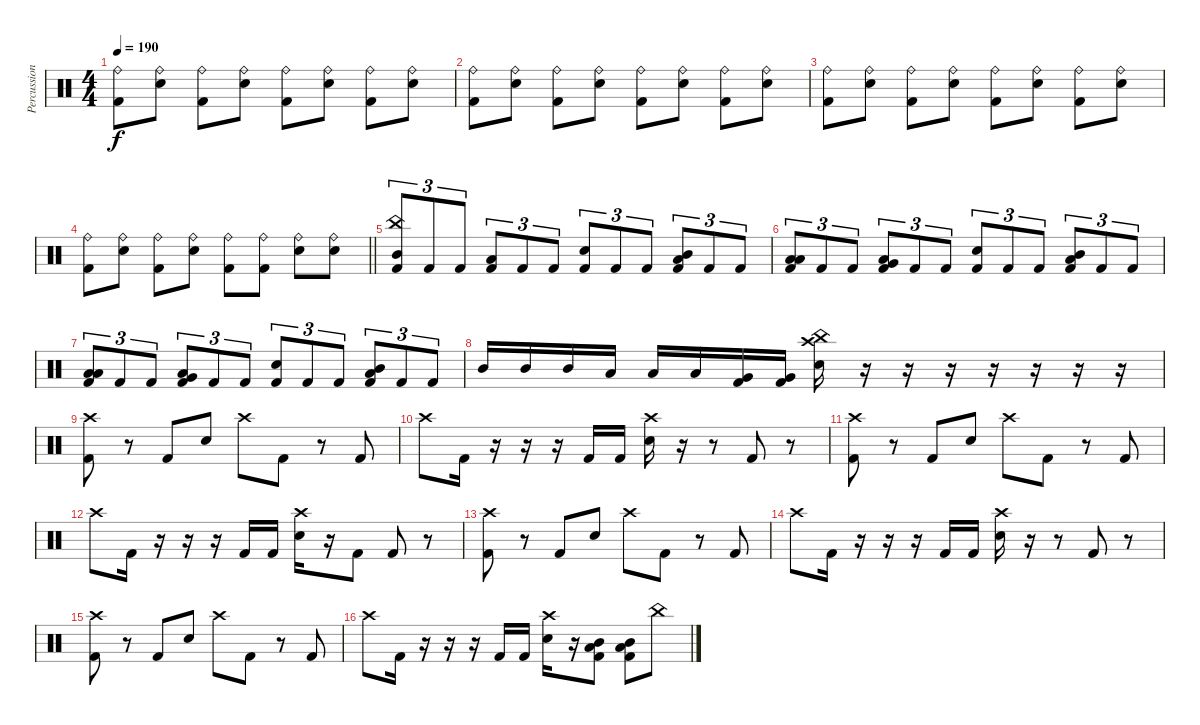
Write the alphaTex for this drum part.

\track ("Percussion" "Percussion") {instrument percussion}
\staff {score}
\articulation defaults
\ts (4 4)
\tempo 190
\clef neutral
\ks c
("Ride (bell)" "Kick (hit) 2").8{dy f} ("Ride (bell)" "Snare (hit) 2").8 ("Ride (bell)" "Kick (hit) 2").8 ("Ride (bell)" "Snare (hit) 2").8 ("Ride (bell)" "Kick (hit) 2").8 ("Ride (bell)" "Snare (hit) 2").8 ("Ride (bell)" "Kick (hit) 2").8 ("Ride (bell)" "Snare (hit) 2").8 |
("Ride (bell)" "Kick (hit) 2").8 ("Ride (bell)" "Snare (hit) 2").8 ("Ride (bell)" "Kick (hit) 2").8 ("Ride (bell)" "Snare (hit) 2").8 ("Ride (bell)" "Kick (hit) 2").8 ("Ride (bell)" "Snare (hit) 2").8 ("Ride (bell)" "Kick (hit) 2").8 ("Ride (bell)" "Snare (hit) 2").8 |
("Ride (bell)" "Kick (hit) 2").8 ("Ride (bell)" "Snare (hit) 2").8 ("Ride (bell)" "Kick (hit) 2").8 ("Ride (bell)" "Snare (hit) 2").8 ("Ride (bell)" "Kick (hit) 2").8 ("Ride (bell)" "Snare (hit) 2").8 ("Ride (bell)" "Kick (hit) 2").8 ("Ride (bell)" "Snare (hit) 2").8 |
\barLineRight lightlight
("Ride (bell)" "Kick (hit) 2").8 ("Ride (bell)" "Snare (hit) 2").8 ("Ride (bell)" "Kick (hit) 2").8 ("Ride (bell)" "Snare (hit) 2").8 ("Ride (bell)" "Kick (hit) 2").8 ("Ride (bell)" "Kick (hit) 2").8 ("Ride (bell)" "Snare (hit) 2").8 ("Ride (bell)" "Snare (hit) 2").8 |
("China (hit)" "Mid Tom (hit)" "Kick (hit) 2").8{tu (3 2)} "Kick (hit) 2".8{tu (3 2)} "Kick (hit) 2".8{tu (3 2)} ("Low Tom (hit)" "Kick (hit) 2").8{tu (3 2)} "Kick (hit) 2".8{tu (3 2)} "Kick (hit) 2".8{tu (3 2)} ("Snare (hit) 2" "Kick (hit) 2").8{tu (3 2)} "Kick (hit) 2".8{tu (3 2)} "Kick (hit) 2".8{tu (3 2)} ("Mid Tom (hit)" "Low Tom (hit)" "Kick (hit) 2").8{tu (3 2)} "Kick (hit) 2".8{tu (3 2)} "Kick (hit) 2".8{tu (3 2)} |
("Low Tom (hit)" "Low Floor Tom (hit)" "Kick (hit) 2").8{tu (3 2)} "Kick (hit) 2".8{tu (3 2)} "Kick (hit) 2".8{tu (3 2)} ("Very Low Tom (hit)" "Low Floor Tom (hit)" "Kick (hit) 2").8{tu (3 2)} "Kick (hit) 2".8{tu (3 2)} "Kick (hit) 2".8{tu (3 2)} ("Snare (hit) 2" "Kick (hit) 2").8{tu (3 2)} "Kick (hit) 2".8{tu (3 2)} "Kick (hit) 2".8{tu (3 2)} ("Mid Tom (hit)" "Low Tom (hit)" "Kick (hit) 2").8{tu (3 2)} "Kick (hit) 2".8{tu (3 2)} "Kick (hit) 2".8{tu (3 2)} |
("Low Tom (hit)" "Low Floor Tom (hit)" "Kick (hit) 2").8{tu (3 2)} "Kick (hit) 2".8{tu (3 2)} "Kick (hit) 2".8{tu (3 2)} ("Very Low Tom (hit)" "Low Floor Tom (hit)" "Kick (hit) 2").8{tu (3 2)} "Kick (hit) 2".8{tu (3 2)} "Kick (hit) 2".8{tu (3 2)} ("Snare (hit) 2" "Kick (hit) 2").8{tu (3 2)} "Kick (hit) 2".8{tu (3 2)} "Kick (hit) 2".8{tu (3 2)} ("Mid Tom (hit)" "Low Tom (hit)" "Kick (hit) 2").8{tu (3 2)} "Kick (hit) 2".8{tu (3 2)} "Kick (hit) 2".8{tu (3 2)} |
"Mid Tom (hit)".16 "Mid Tom (hit)".16 "Mid Tom (hit)".16 "Low Tom (hit)".16 "Low Tom (hit)".16 "Low Tom (hit)".16 ("Very Low Tom (hit)" "Kick (hit) 2").16 ("Very Low Tom (hit)" "Kick (hit) 2").16 ("China (hit)" "Crash high (hit)" "Snare (hit) 2").16 r.16 r.16 r.16 r.16 r.16 r.16 r.16 |
("Crash high (hit)" "Kick (hit) 2").8 r.8 "Kick (hit) 2".8 "Snare (hit) 2".8 "Crash high (hit)".8 "Kick (hit) 2".8 r.8 "Kick (hit) 2".8 |
"Crash high (hit)".8 "Kick (hit) 2".16 r.16 r.16 r.16 "Kick (hit) 2".16 "Kick (hit) 2".16 ("Crash high (hit)" "Snare (hit) 2").16 r.16 r.8 "Kick (hit) 2".8 r.8 |
("Crash high (hit)" "Kick (hit) 2").8 r.8 "Kick (hit) 2".8 "Snare (hit) 2".8 "Crash high (hit)".8 "Kick (hit) 2".8 r.8 "Kick (hit) 2".8 |
"Crash high (hit)".8 "Kick (hit) 2".16 r.16 r.16 r.16 "Kick (hit) 2".16 "Kick (hit) 2".16 ("Crash high (hit)" "Snare (hit) 2").16 r.16 "Kick (hit) 2".8 "Kick (hit) 2".8 r.8 |
("Crash high (hit)" "Kick (hit) 2").8 r.8 "Kick (hit) 2".8 "Snare (hit) 2".8 "Crash high (hit)".8 "Kick (hit) 2".8 r.8 "Kick (hit) 2".8 |
"Crash high (hit)".8 "Kick (hit) 2".16 r.16 r.16 r.16 "Kick (hit) 2".16 "Kick (hit) 2".16 ("Crash high (hit)" "Snare (hit) 2").16 r.16 r.8 "Kick (hit) 2".8 r.8 |
("Crash high (hit)" "Kick (hit) 2").8 r.8 "Kick (hit) 2".8 "Snare (hit) 2".8 "Crash high (hit)".8 "Kick (hit) 2".8 r.8 "Kick (hit) 2".8 |
"Crash high (hit)".8 "Kick (hit) 2".16 r.16 r.16 r.16 "Kick (hit) 2".16 "Kick (hit) 2".16 ("Crash high (hit)" "Snare (hit) 2").16 r.16 ("Mid Tom (hit)" "Low Tom (hit)" "Kick (hit) 2").8 ("Mid Tom (hit)" "Low Tom (hit)" "Kick (hit) 2").8 "China (hit)".8
